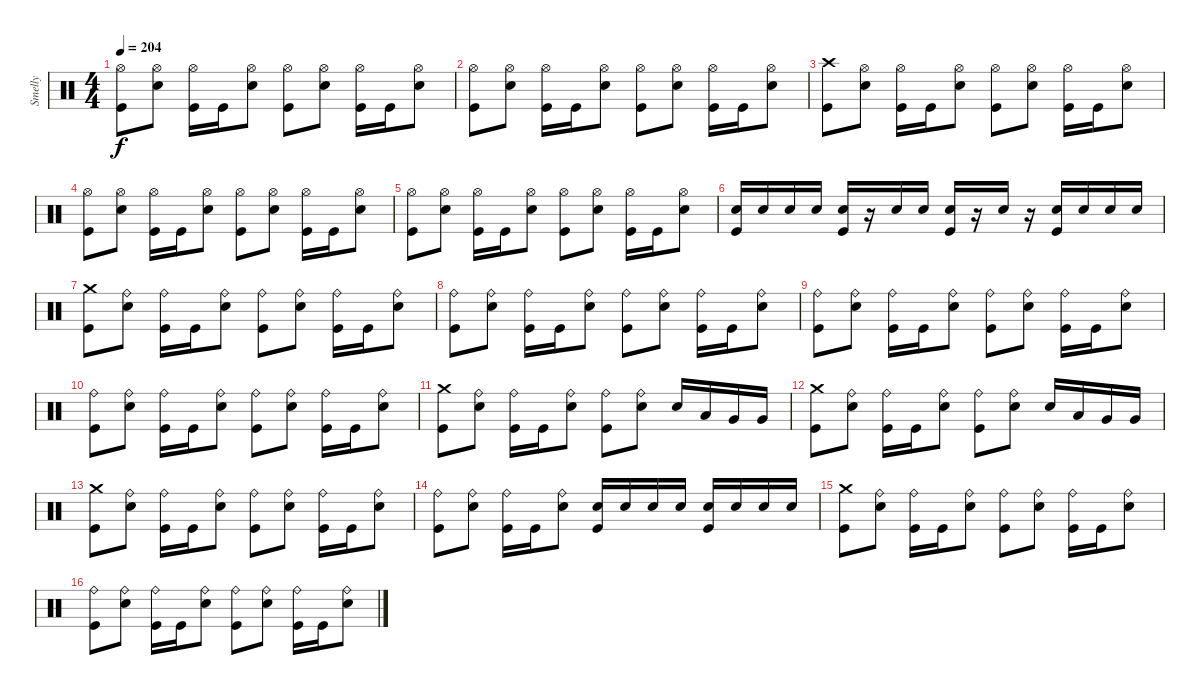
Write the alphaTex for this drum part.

\track ("Smelly" "Smelly") {instrument percussion}
\staff {score}
\articulation defaults
\ts (4 4)
\tempo 204
\clef neutral
\ks c
("Hi-Hat (open)" "Kick (hit)").8{dy f} ("Hi-Hat (open)" "Snare (hit) 2").8 ("Hi-Hat (open)" "Kick (hit)").16 "Kick (hit)".16 ("Hi-Hat (open)" "Snare (hit) 2").8 ("Hi-Hat (open)" "Kick (hit)").8 ("Hi-Hat (open)" "Snare (hit) 2").8 ("Hi-Hat (open)" "Kick (hit)").16 "Kick (hit)".16 ("Hi-Hat (open)" "Snare (hit) 2").8 |
("Hi-Hat (open)" "Kick (hit)").8 ("Hi-Hat (open)" "Snare (hit) 2").8 ("Hi-Hat (open)" "Kick (hit)").16 "Kick (hit)".16 ("Hi-Hat (open)" "Snare (hit) 2").8 ("Hi-Hat (open)" "Kick (hit)").8 ("Hi-Hat (open)" "Snare (hit) 2").8 ("Hi-Hat (open)" "Kick (hit)").16 "Kick (hit)".16 ("Hi-Hat (open)" "Snare (hit) 2").8 |
("Crash high (hit)" "Kick (hit)").8 ("Hi-Hat (open)" "Snare (hit) 2").8 ("Hi-Hat (open)" "Kick (hit)").16 "Kick (hit)".16 ("Hi-Hat (open)" "Snare (hit) 2").8 ("Hi-Hat (open)" "Kick (hit)").8 ("Hi-Hat (open)" "Snare (hit) 2").8 ("Hi-Hat (open)" "Kick (hit)").16 "Kick (hit)".16 ("Hi-Hat (open)" "Snare (hit) 2").8 |
("Hi-Hat (open)" "Kick (hit)").8 ("Hi-Hat (open)" "Snare (hit) 2").8 ("Hi-Hat (open)" "Kick (hit)").16 "Kick (hit)".16 ("Hi-Hat (open)" "Snare (hit) 2").8 ("Hi-Hat (open)" "Kick (hit)").8 ("Hi-Hat (open)" "Snare (hit) 2").8 ("Hi-Hat (open)" "Kick (hit)").16 "Kick (hit)".16 ("Hi-Hat (open)" "Snare (hit) 2").8 |
("Hi-Hat (open)" "Kick (hit)").8 ("Hi-Hat (open)" "Snare (hit) 2").8 ("Hi-Hat (open)" "Kick (hit)").16 "Kick (hit)".16 ("Hi-Hat (open)" "Snare (hit) 2").8 ("Hi-Hat (open)" "Kick (hit)").8 ("Hi-Hat (open)" "Snare (hit) 2").8 ("Hi-Hat (open)" "Kick (hit)").16 "Kick (hit)".16 ("Hi-Hat (open)" "Snare (hit) 2").8 |
("Snare (hit) 2" "Kick (hit)").16 "Snare (hit) 2".16 "Snare (hit) 2".16 "Snare (hit) 2".16 ("Snare (hit) 2" "Kick (hit)").16 r.16 "Snare (hit) 2".16 "Snare (hit) 2".16 ("Snare (hit) 2" "Kick (hit)").16 r.16 "Snare (hit) 2".16 r.16 ("Snare (hit) 2" "Kick (hit)").16 "Snare (hit) 2".16 "Snare (hit) 2".16 "Snare (hit) 2".16 |
("Crash medium (hit)" "Kick (hit)").8 ("Ride (bell)" "Snare (hit) 2").8 ("Ride (bell)" "Kick (hit)").16 "Kick (hit)".16 ("Ride (bell)" "Snare (hit) 2").8 ("Ride (bell)" "Kick (hit)").8 ("Ride (bell)" "Snare (hit) 2").8 ("Ride (bell)" "Kick (hit)").16 "Kick (hit)".16 ("Ride (bell)" "Snare (hit) 2").8 |
("Ride (bell)" "Kick (hit)").8 ("Ride (bell)" "Snare (hit) 2").8 ("Ride (bell)" "Kick (hit)").16 "Kick (hit)".16 ("Ride (bell)" "Snare (hit) 2").8 ("Ride (bell)" "Kick (hit)").8 ("Ride (bell)" "Snare (hit) 2").8 ("Ride (bell)" "Kick (hit)").16 "Kick (hit)".16 ("Ride (bell)" "Snare (hit) 2").8 |
("Ride (bell)" "Kick (hit)").8 ("Ride (bell)" "Snare (hit) 2").8 ("Ride (bell)" "Kick (hit)").16 "Kick (hit)".16 ("Ride (bell)" "Snare (hit) 2").8 ("Ride (bell)" "Kick (hit)").8 ("Ride (bell)" "Snare (hit) 2").8 ("Ride (bell)" "Kick (hit)").16 "Kick (hit)".16 ("Ride (bell)" "Snare (hit) 2").8 |
("Ride (bell)" "Kick (hit)").8 ("Ride (bell)" "Snare (hit) 2").8 ("Ride (bell)" "Kick (hit)").16 "Kick (hit)".16 ("Ride (bell)" "Snare (hit) 2").8 ("Ride (bell)" "Kick (hit)").8 ("Ride (bell)" "Snare (hit) 2").8 ("Ride (bell)" "Kick (hit)").16 "Kick (hit)".16 ("Ride (bell)" "Snare (hit) 2").8 |
("Crash medium (hit)" "Kick (hit)").8 ("Ride (bell)" "Snare (hit) 2").8 ("Ride (bell)" "Kick (hit)").16 "Kick (hit)".16 ("Ride (bell)" "Snare (hit) 2").8 ("Ride (bell)" "Kick (hit)").8 ("Ride (bell)" "Snare (hit) 2").8 "Snare (hit) 2".16 "Low Tom (hit)".16 "Very Low Tom (hit)".16 "Very Low Tom (hit)".16 |
("Crash medium (hit)" "Kick (hit)").8 ("Ride (bell)" "Snare (hit) 2").8 ("Ride (bell)" "Kick (hit)").16 "Kick (hit)".16 ("Ride (bell)" "Snare (hit) 2").8 ("Ride (bell)" "Kick (hit)").8 ("Ride (bell)" "Snare (hit) 2").8 "Snare (hit) 2".16 "Low Tom (hit)".16 "Very Low Tom (hit)".16 "Very Low Tom (hit)".16 |
("Crash medium (hit)" "Kick (hit)").8 ("Ride (bell)" "Snare (hit) 2").8 ("Ride (bell)" "Kick (hit)").16 "Kick (hit)".16 ("Ride (bell)" "Snare (hit) 2").8 ("Ride (bell)" "Kick (hit)").8 ("Ride (bell)" "Snare (hit) 2").8 ("Ride (bell)" "Kick (hit)").16 "Kick (hit)".16 ("Ride (bell)" "Snare (hit) 2").8 |
("Ride (bell)" "Kick (hit)").8 ("Ride (bell)" "Snare (hit) 2").8 ("Ride (bell)" "Kick (hit)").16 "Kick (hit)".16 ("Ride (bell)" "Snare (hit) 2").8 ("Snare (hit) 2" "Kick (hit)").16 "Snare (hit) 2".16 "Snare (hit) 2".16 "Snare (hit) 2".16 ("Snare (hit) 2" "Kick (hit)").16 "Snare (hit) 2".16 "Snare (hit) 2".16 "Snare (hit) 2".16 |
("Crash medium (hit)" "Kick (hit)").8 ("Ride (bell)" "Snare (hit) 2").8 ("Ride (bell)" "Kick (hit)").16 "Kick (hit)".16 ("Ride (bell)" "Snare (hit) 2").8 ("Ride (bell)" "Kick (hit)").8 ("Ride (bell)" "Snare (hit) 2").8 ("Ride (bell)" "Kick (hit)").16 "Kick (hit)".16 ("Ride (bell)" "Snare (hit) 2").8 |
("Ride (bell)" "Kick (hit)").8 ("Ride (bell)" "Snare (hit) 2").8 ("Ride (bell)" "Kick (hit)").16 "Kick (hit)".16 ("Ride (bell)" "Snare (hit) 2").8 ("Ride (bell)" "Kick (hit)").8 ("Ride (bell)" "Snare (hit) 2").8 ("Ride (bell)" "Kick (hit)").16 "Kick (hit)".16 ("Ride (bell)" "Snare (hit) 2").8
